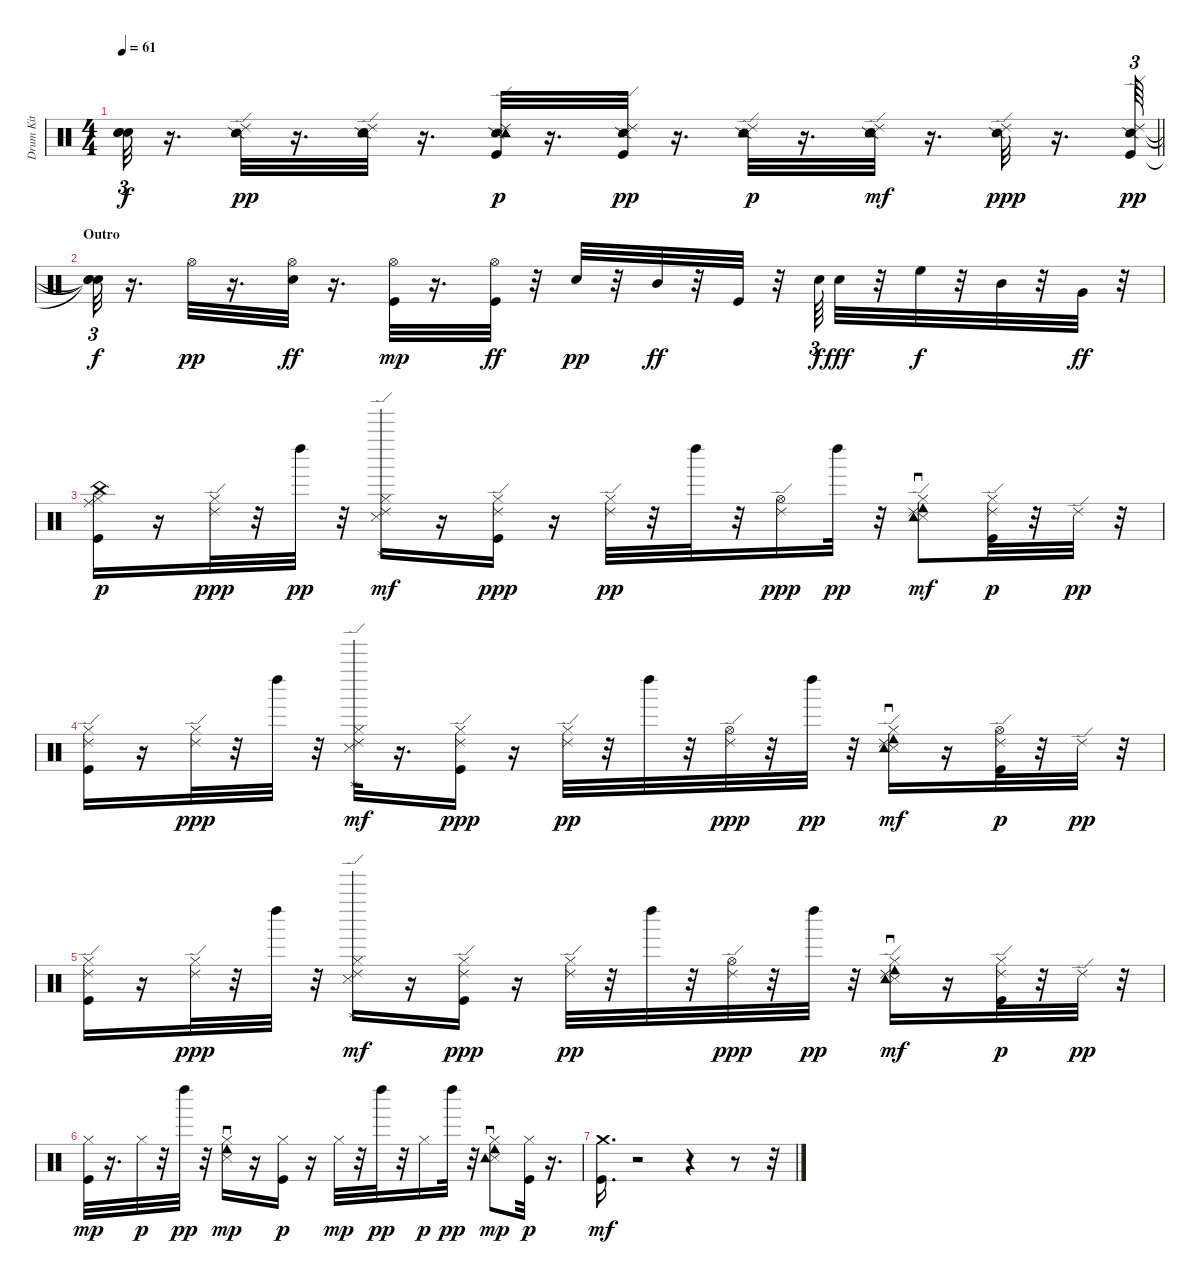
\track ("Drum Kit" "Drum Kit") {instrument percussion}
\staff {score}
\articulation defaults
\ts (4 4)
\tempo 61
\clef neutral
\barLineRight lightlight
\ks c
("Snare (hit)"{t} "Snare (hit)"{t} "Snare (hit)"{t}).32{tu (3 2) dy f} r.16{d} ("Ride (edge) 2" "Snare (side stick) 2").32{dy pp} r.16{d} ("Snare (hit) 2" "Ride (edge) 2" "Snare (side stick) 2" "Tambourine (hit)").32 r.16{d} ("Kick (hit)" "Ride (edge) 2" "Snare (side stick) 2" "Tambourine (hit)").32{dy p} r.16{d} ("Kick (hit)" "Ride (edge) 2" "Snare (side stick) 2").32{dy pp} r.16{d} ("Ride (edge) 2" "Snare (side stick) 2" "Tambourine (hit)").32{dy p} r.16{d} ("Snare (hit) 2" "Ride (edge) 2" "Snare (side stick) 2" "Tambourine (hit)").32{dy mf} r.16{d} ("Ride (edge) 2" "Snare (side stick) 2").32{dy ppp} r.16{d} ("Kick (hit)" "Ride (edge) 2" "Snare (side stick) 2").64{tu (3 2) dy pp} |
\section ("" "Outro")
("Snare (hit)"{t} "Snare (hit)"{t} "Snare (hit)"{t}).32{tu (3 2) dy f} r.16{d} "Hi-Hat (open)".32{dy pp} r.16{d} ("Snare (hit) 2" "Hi-Hat (open)").32{dy ff} r.16{d} ("Kick (hit)" "Hi-Hat (open)").32{dy mp} r.16{d} ("Hi-Hat (open)" "Kick (hit)").32{dy ff} r.32 "Hand Clap (hit)".32{dy pp} r.32 "Mid Tom (hit)".32{dy ff} r.32 "Kick (hit)".32 r.32 "Snare (hit) 2".64{tu (3 2) dy f} "Electric Snare (hit)".32{dy fff} r.32 "High Floor Tom (hit)".32{dy f} r.32 "Mid Tom (hit)".32 r.32 "Very Low Tom (hit)".32{dy ff} r.32 |
("China (hit)" "Kick (hit)" "Hi-Hat (closed)" "Ride (middle)").16{dy p} r.16 ("Hi-Hat (closed)" "Ride (edge) 2").32{dy ppp} r.32 "Left Maraca (hit)".32{dy pp} r.32 ("Hi-Hat (closed)" "Ride (edge) 2" "Snare (side stick) 3" "Golpe (thumb)").16{dy mf} r.16 ("Kick (hit)" "Hi-Hat (closed)" "Ride (edge) 2").16{dy ppp} r.16 ("Hi-Hat (closed)" "Ride (edge) 2").32{dy pp} r.32 "Left Maraca (hit)".32 r.32 ("Hi-Hat (open)" "Ride (edge) 2").16{dy ppp} "Left Maraca (hit)".32{dy pp} r.32 ("Hi-Hat (closed)" "Ride (edge) 2" "Snare (side stick) 3" "Tambourine (roll)" "Tambourine (hit)").8{dy mf} ("Kick (hit)" "Ride (edge) 2" "Hi-Hat (closed)").32{dy p} r.32 "Ride (edge) 2".32{dy pp} r.32 |
("Kick (hit)" "Hi-Hat (closed)" "Ride (edge) 2").16 r.16 ("Hi-Hat (closed)" "Ride (edge) 2").32{dy ppp} r.32 "Left Maraca (hit)".32 r.32 ("Hi-Hat (closed)" "Ride (edge) 2" "Snare (side stick) 3" "Golpe (thumb)").32{dy mf} r.16{d} ("Kick (hit)" "Hi-Hat (closed)" "Ride (edge) 2").16{dy ppp} r.16 ("Hi-Hat (closed)" "Ride (edge) 2").32{dy pp} r.32 "Left Maraca (hit)".32 r.32 ("Hi-Hat (open)" "Ride (edge) 2").32{dy ppp} r.32 "Left Maraca (hit)".32{dy pp} r.32 ("Hi-Hat (closed)" "Ride (edge) 2" "Snare (side stick) 3" "Tambourine (roll)" "Tambourine (hit)").16{dy mf} r.16 ("Kick (hit)" "Ride (edge) 2" "Hi-Hat (open)").32{dy p} r.32 "Ride (edge) 2".32{dy pp} r.32 |
("Kick (hit)" "Hi-Hat (closed)" "Ride (edge) 2").16 r.16 ("Hi-Hat (closed)" "Ride (edge) 2").32{dy ppp} r.32 "Left Maraca (hit)".32 r.32 ("Hi-Hat (closed)" "Ride (edge) 2" "Snare (side stick) 3" "Golpe (thumb)").16{dy mf} r.16 ("Kick (hit)" "Hi-Hat (closed)" "Ride (edge) 2").16{dy ppp} r.16 ("Hi-Hat (closed)" "Ride (edge) 2").32{dy pp} r.32 "Left Maraca (hit)".32 r.32 ("Hi-Hat (open)" "Ride (edge) 2").32{dy ppp} r.32 "Left Maraca (hit)".32{dy pp} r.32 ("Hi-Hat (closed)" "Ride (edge) 2" "Snare (side stick) 3" "Tambourine (roll)" "Tambourine (hit)").16{dy mf} r.16 ("Kick (hit)" "Ride (edge) 2" "Hi-Hat (closed)").32{dy p} r.32 "Ride (edge) 2".32{dy pp} r.32 |
("Kick (hit)" "Hi-Hat (closed)").32{dy mp} r.16{d} "Hi-Hat (closed)".32{dy p} r.32 "Left Maraca (hit)".32{dy pp} r.32 ("Hi-Hat (closed)" "Snare (side stick) 3" "Tambourine (roll)").16{dy mp} r.16 ("Kick (hit)" "Hi-Hat (closed)").16{dy p} r.16 "Hi-Hat (closed)".32{dy mp} r.32 "Left Maraca (hit)".32{dy pp} r.32 "Hi-Hat (closed)".16{dy p} "Left Maraca (hit)".32{dy pp} r.32 ("Hi-Hat (closed)" "Snare (side stick) 3" "Tambourine (roll)" "Tambourine (hit)").8{dy mp} ("Kick (hit)" "Hi-Hat (closed)").32{dy p} r.16{d} |
("Kick (hit)" "Crash medium (hit)").16{d dy mf} r.2 r.4 r.8 r.32
